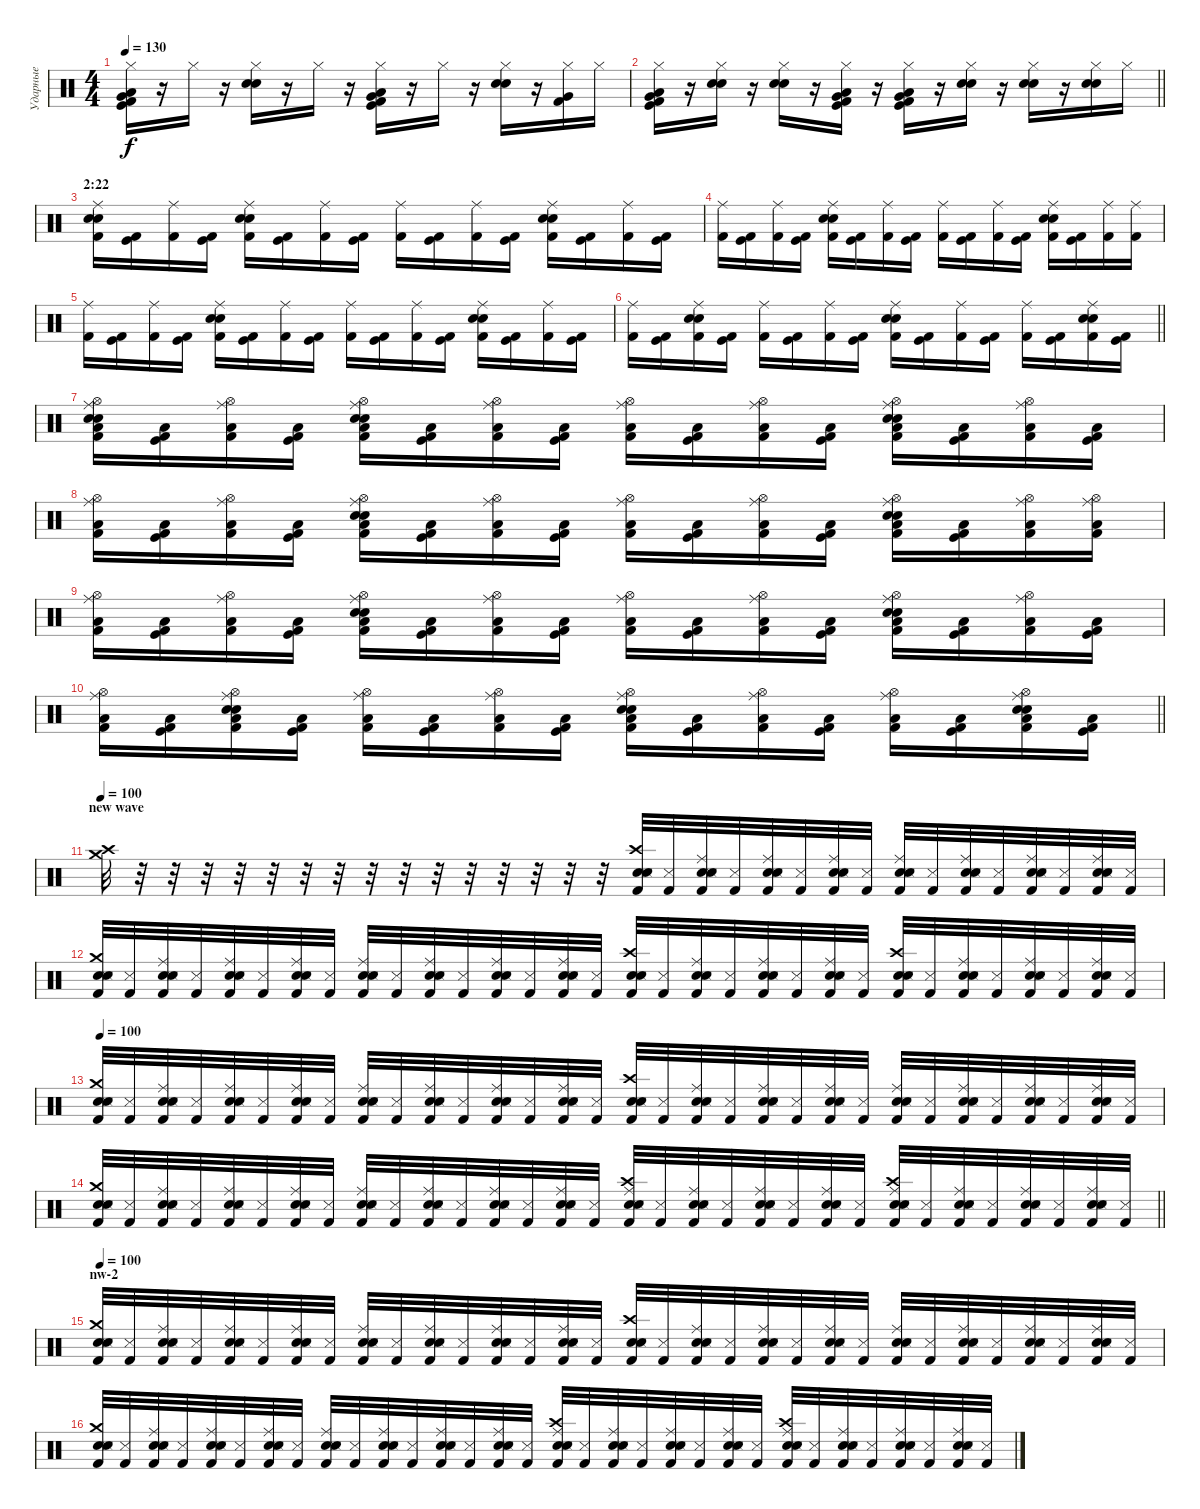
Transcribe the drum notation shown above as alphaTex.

\track ("Ударные" "Ударные") {instrument percussion}
\staff {score}
\articulation defaults
\ts (4 4)
\tempo 130
\clef neutral
\ks c
("Hi-Hat (closed)" "Kick (hit) 2" "Very Low Tom (hit)" "Kick (hit)" "Low Floor Tom (hit)").16{dy f} r.16 "Hi-Hat (closed)".16 r.16 ("Hi-Hat (closed)" "Snare (hit) 2" "Electric Snare (hit)").16 r.16 "Hi-Hat (closed)".16 r.16 ("Hi-Hat (closed)" "Kick (hit) 2" "Very Low Tom (hit)" "Kick (hit)" "Low Floor Tom (hit)").16 r.16 "Hi-Hat (closed)".16 r.16 ("Hi-Hat (closed)" "Snare (hit) 2" "Electric Snare (hit)").16 r.16 ("Hi-Hat (closed)" "Kick (hit) 2" "Very Low Tom (hit)").16 "Hi-Hat (closed)".16 |
\barLineRight lightlight
("Hi-Hat (closed)" "Kick (hit) 2" "Very Low Tom (hit)" "Kick (hit)" "Low Floor Tom (hit)").16 r.16 ("Hi-Hat (closed)" "Snare (hit) 2" "Electric Snare (hit)").16 r.16 ("Hi-Hat (closed)" "Snare (hit) 2" "Electric Snare (hit)").16 r.16 ("Hi-Hat (closed)" "Kick (hit) 2" "Very Low Tom (hit)" "Kick (hit)" "Low Floor Tom (hit)").16 r.16 ("Hi-Hat (closed)" "Kick (hit) 2" "Very Low Tom (hit)" "Kick (hit)" "Low Floor Tom (hit)").16 r.16 ("Hi-Hat (closed)" "Snare (hit) 2" "Electric Snare (hit)").16 r.16 ("Hi-Hat (closed)" "Snare (hit) 2" "Electric Snare (hit)").16 r.16 ("Hi-Hat (closed)" "Snare (hit) 2" "Electric Snare (hit)").16 "Hi-Hat (closed)".16 |
\section ("" "2:22")
("Electric Snare (hit)" "Snare (hit) 2" "Ride (middle)" "Kick (hit) 2").16 ("Kick (hit)" "Kick (hit) 2").16 ("Ride (middle)" "Kick (hit) 2").16 ("Kick (hit)" "Kick (hit) 2").16 ("Electric Snare (hit)" "Snare (hit) 2" "Ride (middle)" "Kick (hit) 2").16 ("Kick (hit)" "Kick (hit) 2").16 ("Ride (middle)" "Kick (hit) 2").16 ("Kick (hit)" "Kick (hit) 2").16 ("Ride (middle)" "Kick (hit) 2").16 ("Kick (hit)" "Kick (hit) 2").16 ("Ride (middle)" "Kick (hit) 2").16 ("Kick (hit)" "Kick (hit) 2").16 ("Electric Snare (hit)" "Snare (hit) 2" "Ride (middle)" "Kick (hit) 2").16 ("Kick (hit)" "Kick (hit) 2").16 ("Ride (middle)" "Kick (hit) 2").16 ("Kick (hit)" "Kick (hit) 2").16 |
("Ride (middle)" "Kick (hit) 2").16 ("Kick (hit)" "Kick (hit) 2").16 ("Ride (middle)" "Kick (hit) 2").16 ("Kick (hit)" "Kick (hit) 2").16 ("Electric Snare (hit)" "Snare (hit) 2" "Ride (middle)" "Kick (hit) 2").16 ("Kick (hit)" "Kick (hit) 2").16 ("Ride (middle)" "Kick (hit) 2").16 ("Kick (hit)" "Kick (hit) 2").16 ("Ride (middle)" "Kick (hit) 2").16 ("Kick (hit)" "Kick (hit) 2").16 ("Ride (middle)" "Kick (hit) 2").16 ("Kick (hit)" "Kick (hit) 2").16 ("Electric Snare (hit)" "Snare (hit) 2" "Ride (middle)" "Kick (hit) 2").16 ("Kick (hit)" "Kick (hit) 2").16 ("Ride (middle)" "Kick (hit) 2").16 ("Ride (middle)" "Kick (hit) 2").16 |
("Ride (middle)" "Kick (hit) 2").16 ("Kick (hit)" "Kick (hit) 2").16 ("Ride (middle)" "Kick (hit) 2").16 ("Kick (hit)" "Kick (hit) 2").16 ("Electric Snare (hit)" "Snare (hit) 2" "Ride (middle)" "Kick (hit) 2").16 ("Kick (hit)" "Kick (hit) 2").16 ("Ride (middle)" "Kick (hit) 2").16 ("Kick (hit)" "Kick (hit) 2").16 ("Ride (middle)" "Kick (hit) 2").16 ("Kick (hit)" "Kick (hit) 2").16 ("Ride (middle)" "Kick (hit) 2").16 ("Kick (hit)" "Kick (hit) 2").16 ("Electric Snare (hit)" "Snare (hit) 2" "Ride (middle)" "Kick (hit) 2").16 ("Kick (hit)" "Kick (hit) 2").16 ("Ride (middle)" "Kick (hit) 2").16 ("Kick (hit)" "Kick (hit) 2").16 |
\barLineRight lightlight
("Ride (middle)" "Kick (hit) 2").16 ("Kick (hit)" "Kick (hit) 2").16 ("Electric Snare (hit)" "Snare (hit) 2" "Ride (middle)" "Kick (hit) 2").16 ("Kick (hit)" "Kick (hit) 2").16 ("Ride (middle)" "Kick (hit) 2").16 ("Kick (hit)" "Kick (hit) 2").16 ("Ride (middle)" "Kick (hit) 2").16 ("Kick (hit)" "Kick (hit) 2").16 ("Electric Snare (hit)" "Snare (hit) 2" "Ride (middle)" "Kick (hit) 2").16 ("Kick (hit)" "Kick (hit) 2").16 ("Ride (middle)" "Kick (hit) 2").16 ("Kick (hit)" "Kick (hit) 2").16 ("Ride (middle)" "Kick (hit) 2").16 ("Kick (hit)" "Kick (hit) 2").16 ("Electric Snare (hit)" "Snare (hit) 2" "Ride (middle)" "Kick (hit) 2").16 ("Kick (hit)" "Kick (hit) 2").16 |
("Low Floor Tom (hit)" "Electric Snare (hit)" "Snare (hit) 2" "Ride (middle)" "Hi-Hat (open)" "Kick (hit) 2").16 ("Low Floor Tom (hit)" "Kick (hit)" "Kick (hit) 2").16 ("Low Floor Tom (hit)" "Ride (middle)" "Hi-Hat (open)" "Kick (hit) 2").16 ("Low Floor Tom (hit)" "Kick (hit)" "Kick (hit) 2").16 ("Low Floor Tom (hit)" "Electric Snare (hit)" "Snare (hit) 2" "Ride (middle)" "Hi-Hat (open)" "Kick (hit) 2").16 ("Low Floor Tom (hit)" "Kick (hit)" "Kick (hit) 2").16 ("Low Floor Tom (hit)" "Ride (middle)" "Hi-Hat (open)" "Kick (hit) 2").16 ("Low Floor Tom (hit)" "Kick (hit)" "Kick (hit) 2").16 ("Low Floor Tom (hit)" "Ride (middle)" "Hi-Hat (open)" "Kick (hit) 2").16 ("Low Floor Tom (hit)" "Kick (hit)" "Kick (hit) 2").16 ("Low Floor Tom (hit)" "Ride (middle)" "Hi-Hat (open)" "Kick (hit) 2").16 ("Low Floor Tom (hit)" "Kick (hit)" "Kick (hit) 2").16 ("Low Floor Tom (hit)" "Electric Snare (hit)" "Snare (hit) 2" "Ride (middle)" "Hi-Hat (open)" "Kick (hit) 2").16 ("Low Floor Tom (hit)" "Kick (hit)" "Kick (hit) 2").16 ("Low Floor Tom (hit)" "Ride (middle)" "Hi-Hat (open)" "Kick (hit) 2").16 ("Low Floor Tom (hit)" "Kick (hit)" "Kick (hit) 2").16 |
("Low Floor Tom (hit)" "Ride (middle)" "Hi-Hat (open)" "Kick (hit) 2").16 ("Low Floor Tom (hit)" "Kick (hit)" "Kick (hit) 2").16 ("Low Floor Tom (hit)" "Ride (middle)" "Hi-Hat (open)" "Kick (hit) 2").16 ("Low Floor Tom (hit)" "Kick (hit)" "Kick (hit) 2").16 ("Low Floor Tom (hit)" "Electric Snare (hit)" "Snare (hit) 2" "Ride (middle)" "Hi-Hat (open)" "Kick (hit) 2").16 ("Low Floor Tom (hit)" "Kick (hit)" "Kick (hit) 2").16 ("Low Floor Tom (hit)" "Ride (middle)" "Hi-Hat (open)" "Kick (hit) 2").16 ("Low Floor Tom (hit)" "Kick (hit)" "Kick (hit) 2").16 ("Low Floor Tom (hit)" "Ride (middle)" "Hi-Hat (open)" "Kick (hit) 2").16 ("Low Floor Tom (hit)" "Kick (hit)" "Kick (hit) 2").16 ("Low Floor Tom (hit)" "Ride (middle)" "Hi-Hat (open)" "Kick (hit) 2").16 ("Low Floor Tom (hit)" "Kick (hit)" "Kick (hit) 2").16 ("Low Floor Tom (hit)" "Electric Snare (hit)" "Snare (hit) 2" "Ride (middle)" "Hi-Hat (open)" "Kick (hit) 2").16 ("Low Floor Tom (hit)" "Kick (hit)" "Kick (hit) 2").16 ("Low Floor Tom (hit)" "Ride (middle)" "Hi-Hat (open)" "Kick (hit) 2").16 ("Low Floor Tom (hit)" "Ride (middle)" "Hi-Hat (open)" "Kick (hit) 2").16 |
("Low Floor Tom (hit)" "Ride (middle)" "Hi-Hat (open)" "Kick (hit) 2").16 ("Low Floor Tom (hit)" "Kick (hit)" "Kick (hit) 2").16 ("Low Floor Tom (hit)" "Ride (middle)" "Hi-Hat (open)" "Kick (hit) 2").16 ("Low Floor Tom (hit)" "Kick (hit)" "Kick (hit) 2").16 ("Low Floor Tom (hit)" "Electric Snare (hit)" "Snare (hit) 2" "Ride (middle)" "Hi-Hat (open)" "Kick (hit) 2").16 ("Low Floor Tom (hit)" "Kick (hit)" "Kick (hit) 2").16 ("Low Floor Tom (hit)" "Ride (middle)" "Hi-Hat (open)" "Kick (hit) 2").16 ("Low Floor Tom (hit)" "Kick (hit)" "Kick (hit) 2").16 ("Low Floor Tom (hit)" "Ride (middle)" "Hi-Hat (open)" "Kick (hit) 2").16 ("Low Floor Tom (hit)" "Kick (hit)" "Kick (hit) 2").16 ("Low Floor Tom (hit)" "Ride (middle)" "Hi-Hat (open)" "Kick (hit) 2").16 ("Low Floor Tom (hit)" "Kick (hit)" "Kick (hit) 2").16 ("Low Floor Tom (hit)" "Electric Snare (hit)" "Snare (hit) 2" "Ride (middle)" "Hi-Hat (open)" "Kick (hit) 2").16 ("Low Floor Tom (hit)" "Kick (hit)" "Kick (hit) 2").16 ("Low Floor Tom (hit)" "Ride (middle)" "Hi-Hat (open)" "Kick (hit) 2").16 ("Low Floor Tom (hit)" "Kick (hit)" "Kick (hit) 2").16 |
\barLineRight lightlight
("Low Floor Tom (hit)" "Ride (middle)" "Hi-Hat (open)" "Kick (hit) 2").16 ("Low Floor Tom (hit)" "Kick (hit)" "Kick (hit) 2").16 ("Low Floor Tom (hit)" "Electric Snare (hit)" "Snare (hit) 2" "Ride (middle)" "Hi-Hat (open)" "Kick (hit) 2").16 ("Low Floor Tom (hit)" "Kick (hit)" "Kick (hit) 2").16 ("Low Floor Tom (hit)" "Ride (middle)" "Hi-Hat (open)" "Kick (hit) 2").16 ("Low Floor Tom (hit)" "Kick (hit)" "Kick (hit) 2").16 ("Low Floor Tom (hit)" "Ride (middle)" "Hi-Hat (open)" "Kick (hit) 2").16 ("Low Floor Tom (hit)" "Kick (hit)" "Kick (hit) 2").16 ("Low Floor Tom (hit)" "Electric Snare (hit)" "Snare (hit) 2" "Ride (middle)" "Hi-Hat (open)" "Kick (hit) 2").16 ("Low Floor Tom (hit)" "Kick (hit)" "Kick (hit) 2").16 ("Low Floor Tom (hit)" "Ride (middle)" "Hi-Hat (open)" "Kick (hit) 2").16 ("Low Floor Tom (hit)" "Kick (hit)" "Kick (hit) 2").16 ("Low Floor Tom (hit)" "Ride (middle)" "Hi-Hat (open)" "Kick (hit) 2").16 ("Low Floor Tom (hit)" "Kick (hit)" "Kick (hit) 2").16 ("Low Floor Tom (hit)" "Electric Snare (hit)" "Snare (hit) 2" "Ride (middle)" "Hi-Hat (open)" "Kick (hit) 2").16 ("Low Floor Tom (hit)" "Kick (hit)" "Kick (hit) 2").16 |
\section ("" "new wave")
\tempo 100
("Crash medium (hit)" "Crash high (hit)").32 r.32 r.32 r.32 r.32 r.32 r.32 r.32 r.32 r.32 r.32 r.32 r.32 r.32 r.32 r.32 ("Electric Snare (hit)" "Snare (hit) 2" "Crash high (hit)" "Metronome (hit)" "Kick (hit) 2").32 ("Metronome (hit)" "Kick (hit) 2").32 ("Ride (middle)" "Electric Snare (hit)" "Snare (hit) 2" "Metronome (hit)" "Kick (hit) 2").32 ("Metronome (hit)" "Kick (hit) 2").32 ("Ride (middle)" "Electric Snare (hit)" "Snare (hit) 2" "Metronome (hit)" "Kick (hit) 2").32 ("Metronome (hit)" "Kick (hit) 2").32 ("Ride (middle)" "Electric Snare (hit)" "Snare (hit) 2" "Metronome (hit)" "Kick (hit) 2").32 ("Metronome (hit)" "Kick (hit) 2").32 ("Ride (middle)" "Electric Snare (hit)" "Snare (hit) 2" "Metronome (hit)" "Kick (hit) 2").32 ("Metronome (hit)" "Kick (hit) 2").32 ("Ride (middle)" "Electric Snare (hit)" "Snare (hit) 2" "Metronome (hit)" "Kick (hit) 2").32 ("Metronome (hit)" "Kick (hit) 2").32 ("Ride (middle)" "Electric Snare (hit)" "Snare (hit) 2" "Metronome (hit)" "Kick (hit) 2").32 ("Metronome (hit)" "Kick (hit) 2").32 ("Ride (middle)" "Electric Snare (hit)" "Snare (hit) 2" "Metronome (hit)" "Kick (hit) 2").32 ("Metronome (hit)" "Kick (hit) 2").32 |
("Electric Snare (hit)" "Snare (hit) 2" "Crash medium (hit)" "Metronome (hit)" "Kick (hit) 2").32 ("Metronome (hit)" "Kick (hit) 2").32 ("Ride (middle)" "Electric Snare (hit)" "Snare (hit) 2" "Metronome (hit)" "Kick (hit) 2").32 ("Metronome (hit)" "Kick (hit) 2").32 ("Ride (middle)" "Electric Snare (hit)" "Snare (hit) 2" "Metronome (hit)" "Kick (hit) 2").32 ("Metronome (hit)" "Kick (hit) 2").32 ("Ride (middle)" "Electric Snare (hit)" "Snare (hit) 2" "Metronome (hit)" "Kick (hit) 2").32 ("Metronome (hit)" "Kick (hit) 2").32 ("Ride (middle)" "Electric Snare (hit)" "Snare (hit) 2" "Metronome (hit)" "Kick (hit) 2").32 ("Metronome (hit)" "Kick (hit) 2").32 ("Ride (middle)" "Electric Snare (hit)" "Snare (hit) 2" "Metronome (hit)" "Kick (hit) 2").32 ("Metronome (hit)" "Kick (hit) 2").32 ("Ride (middle)" "Electric Snare (hit)" "Snare (hit) 2" "Metronome (hit)" "Kick (hit) 2").32 ("Metronome (hit)" "Kick (hit) 2").32 ("Ride (middle)" "Electric Snare (hit)" "Snare (hit) 2" "Metronome (hit)" "Kick (hit) 2").32 ("Metronome (hit)" "Kick (hit) 2").32 ("Electric Snare (hit)" "Snare (hit) 2" "Crash high (hit)" "Metronome (hit)" "Kick (hit) 2").32 ("Metronome (hit)" "Kick (hit) 2").32 ("Ride (middle)" "Electric Snare (hit)" "Snare (hit) 2" "Metronome (hit)" "Kick (hit) 2").32 ("Metronome (hit)" "Kick (hit) 2").32 ("Ride (middle)" "Electric Snare (hit)" "Snare (hit) 2" "Metronome (hit)" "Kick (hit) 2").32 ("Metronome (hit)" "Kick (hit) 2").32 ("Ride (middle)" "Electric Snare (hit)" "Snare (hit) 2" "Metronome (hit)" "Kick (hit) 2").32 ("Metronome (hit)" "Kick (hit) 2").32 ("Electric Snare (hit)" "Snare (hit) 2" "Crash high (hit)" "Metronome (hit)" "Kick (hit) 2").32 ("Metronome (hit)" "Kick (hit) 2").32 ("Ride (middle)" "Electric Snare (hit)" "Snare (hit) 2" "Metronome (hit)" "Kick (hit) 2").32 ("Metronome (hit)" "Kick (hit) 2").32 ("Ride (middle)" "Electric Snare (hit)" "Snare (hit) 2" "Metronome (hit)" "Kick (hit) 2").32 ("Metronome (hit)" "Kick (hit) 2").32 ("Ride (middle)" "Electric Snare (hit)" "Snare (hit) 2" "Metronome (hit)" "Kick (hit) 2").32 ("Metronome (hit)" "Kick (hit) 2").32 |
\tempo 100
("Electric Snare (hit)" "Snare (hit) 2" "Crash medium (hit)" "Metronome (hit)" "Kick (hit) 2").32 ("Metronome (hit)" "Kick (hit) 2").32 ("Ride (middle)" "Electric Snare (hit)" "Snare (hit) 2" "Metronome (hit)" "Kick (hit) 2").32 ("Metronome (hit)" "Kick (hit) 2").32 ("Ride (middle)" "Electric Snare (hit)" "Snare (hit) 2" "Metronome (hit)" "Kick (hit) 2").32 ("Metronome (hit)" "Kick (hit) 2").32 ("Ride (middle)" "Electric Snare (hit)" "Snare (hit) 2" "Metronome (hit)" "Kick (hit) 2").32 ("Metronome (hit)" "Kick (hit) 2").32 ("Ride (middle)" "Electric Snare (hit)" "Snare (hit) 2" "Metronome (hit)" "Kick (hit) 2").32 ("Metronome (hit)" "Kick (hit) 2").32 ("Ride (middle)" "Electric Snare (hit)" "Snare (hit) 2" "Metronome (hit)" "Kick (hit) 2").32 ("Metronome (hit)" "Kick (hit) 2").32 ("Ride (middle)" "Electric Snare (hit)" "Snare (hit) 2" "Metronome (hit)" "Kick (hit) 2").32 ("Metronome (hit)" "Kick (hit) 2").32 ("Ride (middle)" "Electric Snare (hit)" "Snare (hit) 2" "Metronome (hit)" "Kick (hit) 2").32 ("Metronome (hit)" "Kick (hit) 2").32 ("Electric Snare (hit)" "Snare (hit) 2" "Crash high (hit)" "Metronome (hit)" "Kick (hit) 2").32 ("Metronome (hit)" "Kick (hit) 2").32 ("Ride (middle)" "Electric Snare (hit)" "Snare (hit) 2" "Metronome (hit)" "Kick (hit) 2").32 ("Metronome (hit)" "Kick (hit) 2").32 ("Ride (middle)" "Electric Snare (hit)" "Snare (hit) 2" "Metronome (hit)" "Kick (hit) 2").32 ("Metronome (hit)" "Kick (hit) 2").32 ("Ride (middle)" "Electric Snare (hit)" "Snare (hit) 2" "Metronome (hit)" "Kick (hit) 2").32 ("Metronome (hit)" "Kick (hit) 2").32 ("Ride (middle)" "Electric Snare (hit)" "Snare (hit) 2" "Metronome (hit)" "Kick (hit) 2").32 ("Metronome (hit)" "Kick (hit) 2").32 ("Ride (middle)" "Electric Snare (hit)" "Snare (hit) 2" "Metronome (hit)" "Kick (hit) 2").32 ("Metronome (hit)" "Kick (hit) 2").32 ("Ride (middle)" "Electric Snare (hit)" "Snare (hit) 2" "Metronome (hit)" "Kick (hit) 2").32 ("Metronome (hit)" "Kick (hit) 2").32 ("Ride (middle)" "Electric Snare (hit)" "Snare (hit) 2" "Metronome (hit)" "Kick (hit) 2").32 ("Metronome (hit)" "Kick (hit) 2").32 |
\barLineRight lightlight
("Electric Snare (hit)" "Snare (hit) 2" "Crash medium (hit)" "Metronome (hit)" "Kick (hit) 2").32 ("Metronome (hit)" "Kick (hit) 2").32 ("Ride (middle)" "Electric Snare (hit)" "Snare (hit) 2" "Metronome (hit)" "Kick (hit) 2").32 ("Metronome (hit)" "Kick (hit) 2").32 ("Ride (middle)" "Electric Snare (hit)" "Snare (hit) 2" "Metronome (hit)" "Kick (hit) 2").32 ("Metronome (hit)" "Kick (hit) 2").32 ("Ride (middle)" "Electric Snare (hit)" "Snare (hit) 2" "Metronome (hit)" "Kick (hit) 2").32 ("Metronome (hit)" "Kick (hit) 2").32 ("Ride (middle)" "Electric Snare (hit)" "Snare (hit) 2" "Metronome (hit)" "Kick (hit) 2").32 ("Metronome (hit)" "Kick (hit) 2").32 ("Ride (middle)" "Electric Snare (hit)" "Snare (hit) 2" "Metronome (hit)" "Kick (hit) 2").32 ("Metronome (hit)" "Kick (hit) 2").32 ("Ride (middle)" "Electric Snare (hit)" "Snare (hit) 2" "Metronome (hit)" "Kick (hit) 2").32 ("Metronome (hit)" "Kick (hit) 2").32 ("Ride (middle)" "Electric Snare (hit)" "Snare (hit) 2" "Metronome (hit)" "Kick (hit) 2").32 ("Metronome (hit)" "Kick (hit) 2").32 ("Ride (middle)" "Electric Snare (hit)" "Snare (hit) 2" "Crash high (hit)" "Metronome (hit)" "Kick (hit) 2").32 ("Metronome (hit)" "Kick (hit) 2").32 ("Ride (middle)" "Electric Snare (hit)" "Snare (hit) 2" "Metronome (hit)" "Kick (hit) 2").32 ("Metronome (hit)" "Kick (hit) 2").32 ("Ride (middle)" "Electric Snare (hit)" "Snare (hit) 2" "Metronome (hit)" "Kick (hit) 2").32 ("Metronome (hit)" "Kick (hit) 2").32 ("Ride (middle)" "Electric Snare (hit)" "Snare (hit) 2" "Metronome (hit)" "Kick (hit) 2").32 ("Metronome (hit)" "Kick (hit) 2").32 ("Ride (middle)" "Electric Snare (hit)" "Snare (hit) 2" "Crash high (hit)" "Metronome (hit)" "Kick (hit) 2").32 ("Metronome (hit)" "Kick (hit) 2").32 ("Ride (middle)" "Electric Snare (hit)" "Snare (hit) 2" "Metronome (hit)" "Kick (hit) 2").32 ("Metronome (hit)" "Kick (hit) 2").32 ("Ride (middle)" "Electric Snare (hit)" "Snare (hit) 2" "Metronome (hit)" "Kick (hit) 2").32 ("Metronome (hit)" "Kick (hit) 2").32 ("Ride (middle)" "Electric Snare (hit)" "Snare (hit) 2" "Metronome (hit)" "Kick (hit) 2").32 ("Metronome (hit)" "Kick (hit) 2").32 |
\section ("" "nw-2")
\tempo 100
("Electric Snare (hit)" "Snare (hit) 2" "Crash medium (hit)" "Metronome (hit)" "Kick (hit) 2").32 ("Metronome (hit)" "Kick (hit) 2").32 ("Ride (middle)" "Electric Snare (hit)" "Snare (hit) 2" "Metronome (hit)" "Kick (hit) 2").32 ("Metronome (hit)" "Kick (hit) 2").32 ("Ride (middle)" "Electric Snare (hit)" "Snare (hit) 2" "Metronome (hit)" "Kick (hit) 2").32 ("Metronome (hit)" "Kick (hit) 2").32 ("Ride (middle)" "Electric Snare (hit)" "Snare (hit) 2" "Metronome (hit)" "Kick (hit) 2").32 ("Metronome (hit)" "Kick (hit) 2").32 ("Ride (middle)" "Electric Snare (hit)" "Snare (hit) 2" "Metronome (hit)" "Kick (hit) 2").32 ("Metronome (hit)" "Kick (hit) 2").32 ("Ride (middle)" "Electric Snare (hit)" "Snare (hit) 2" "Metronome (hit)" "Kick (hit) 2").32 ("Metronome (hit)" "Kick (hit) 2").32 ("Ride (middle)" "Electric Snare (hit)" "Snare (hit) 2" "Metronome (hit)" "Kick (hit) 2").32 ("Metronome (hit)" "Kick (hit) 2").32 ("Ride (middle)" "Electric Snare (hit)" "Snare (hit) 2" "Metronome (hit)" "Kick (hit) 2").32 ("Metronome (hit)" "Kick (hit) 2").32 ("Electric Snare (hit)" "Snare (hit) 2" "Crash high (hit)" "Metronome (hit)" "Kick (hit) 2").32 ("Metronome (hit)" "Kick (hit) 2").32 ("Ride (middle)" "Electric Snare (hit)" "Snare (hit) 2" "Metronome (hit)" "Kick (hit) 2").32 ("Metronome (hit)" "Kick (hit) 2").32 ("Ride (middle)" "Electric Snare (hit)" "Snare (hit) 2" "Metronome (hit)" "Kick (hit) 2").32 ("Metronome (hit)" "Kick (hit) 2").32 ("Ride (middle)" "Electric Snare (hit)" "Snare (hit) 2" "Metronome (hit)" "Kick (hit) 2").32 ("Metronome (hit)" "Kick (hit) 2").32 ("Ride (middle)" "Electric Snare (hit)" "Snare (hit) 2" "Metronome (hit)" "Kick (hit) 2").32 ("Metronome (hit)" "Kick (hit) 2").32 ("Ride (middle)" "Electric Snare (hit)" "Snare (hit) 2" "Metronome (hit)" "Kick (hit) 2").32 ("Metronome (hit)" "Kick (hit) 2").32 ("Ride (middle)" "Electric Snare (hit)" "Snare (hit) 2" "Metronome (hit)" "Kick (hit) 2").32 ("Metronome (hit)" "Kick (hit) 2").32 ("Ride (middle)" "Electric Snare (hit)" "Snare (hit) 2" "Metronome (hit)" "Kick (hit) 2").32 ("Metronome (hit)" "Kick (hit) 2").32 |
("Electric Snare (hit)" "Snare (hit) 2" "Crash medium (hit)" "Metronome (hit)" "Kick (hit) 2").32 ("Metronome (hit)" "Kick (hit) 2").32 ("Ride (middle)" "Electric Snare (hit)" "Snare (hit) 2" "Metronome (hit)" "Kick (hit) 2").32 ("Metronome (hit)" "Kick (hit) 2").32 ("Ride (middle)" "Electric Snare (hit)" "Snare (hit) 2" "Metronome (hit)" "Kick (hit) 2").32 ("Metronome (hit)" "Kick (hit) 2").32 ("Ride (middle)" "Electric Snare (hit)" "Snare (hit) 2" "Metronome (hit)" "Kick (hit) 2").32 ("Metronome (hit)" "Kick (hit) 2").32 ("Ride (middle)" "Electric Snare (hit)" "Snare (hit) 2" "Metronome (hit)" "Kick (hit) 2").32 ("Metronome (hit)" "Kick (hit) 2").32 ("Ride (middle)" "Electric Snare (hit)" "Snare (hit) 2" "Metronome (hit)" "Kick (hit) 2").32 ("Metronome (hit)" "Kick (hit) 2").32 ("Ride (middle)" "Electric Snare (hit)" "Snare (hit) 2" "Metronome (hit)" "Kick (hit) 2").32 ("Metronome (hit)" "Kick (hit) 2").32 ("Ride (middle)" "Electric Snare (hit)" "Snare (hit) 2" "Metronome (hit)" "Kick (hit) 2").32 ("Metronome (hit)" "Kick (hit) 2").32 ("Ride (middle)" "Electric Snare (hit)" "Snare (hit) 2" "Crash high (hit)" "Metronome (hit)" "Kick (hit) 2").32 ("Metronome (hit)" "Kick (hit) 2").32 ("Ride (middle)" "Electric Snare (hit)" "Snare (hit) 2" "Metronome (hit)" "Kick (hit) 2").32 ("Metronome (hit)" "Kick (hit) 2").32 ("Ride (middle)" "Electric Snare (hit)" "Snare (hit) 2" "Metronome (hit)" "Kick (hit) 2").32 ("Metronome (hit)" "Kick (hit) 2").32 ("Ride (middle)" "Electric Snare (hit)" "Snare (hit) 2" "Metronome (hit)" "Kick (hit) 2").32 ("Metronome (hit)" "Kick (hit) 2").32 ("Ride (middle)" "Electric Snare (hit)" "Snare (hit) 2" "Crash high (hit)" "Metronome (hit)" "Kick (hit) 2").32 ("Metronome (hit)" "Kick (hit) 2").32 ("Ride (middle)" "Electric Snare (hit)" "Snare (hit) 2" "Metronome (hit)" "Kick (hit) 2").32 ("Metronome (hit)" "Kick (hit) 2").32 ("Ride (middle)" "Electric Snare (hit)" "Snare (hit) 2" "Metronome (hit)" "Kick (hit) 2").32 ("Metronome (hit)" "Kick (hit) 2").32 ("Ride (middle)" "Electric Snare (hit)" "Snare (hit) 2" "Metronome (hit)" "Kick (hit) 2").32 ("Metronome (hit)" "Kick (hit) 2").32
